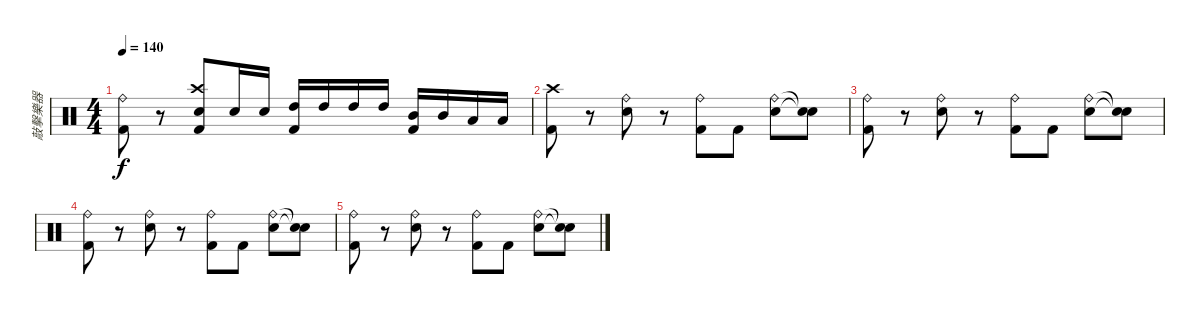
\track ("敲擊樂器" "敲擊樂器") {instrument percussion}
\staff {score}
\articulation defaults
\ts (4 4)
\tempo 140
\clef neutral
\ks c
("Ride (bell)" "Kick (hit) 2").8{dy f} r.8 ("Crash high (hit)" "Snare (hit) 2" "Kick (hit) 2").8 "Snare (hit) 2".16 "Snare (hit) 2".16 ("High Tom (hit)" "Kick (hit) 2").16 "High Tom (hit)".16 "High Tom (hit)".16 "High Tom (hit)".16 ("Mid Tom (hit)" "Kick (hit) 2").16 "Mid Tom (hit)".16 "Low Tom (hit)".16 "Low Tom (hit)".16 |
("Crash high (hit)" "Kick (hit) 2").8 r.8 ("Ride (bell)" "Snare (hit) 2").8 r.8 ("Ride (bell)" "Kick (hit) 2").8 "Kick (hit) 2".8 ("Ride (bell)" "Snare (hit) 2").8 ("Snare (hit)"{t} "Snare (hit)"{t}).8 |
("Ride (bell)" "Kick (hit) 2").8 r.8 ("Ride (bell)" "Snare (hit) 2").8 r.8 ("Ride (bell)" "Kick (hit) 2").8 "Kick (hit) 2".8 ("Ride (bell)" "Snare (hit) 2").8 ("Snare (hit)"{t} "Snare (hit)"{t}).8 |
("Ride (bell)" "Kick (hit) 2").8 r.8 ("Ride (bell)" "Snare (hit) 2").8 r.8 ("Ride (bell)" "Kick (hit) 2").8 "Kick (hit) 2".8 ("Ride (bell)" "Snare (hit) 2").8 ("Snare (hit)"{t} "Snare (hit)"{t}).8 |
("Ride (bell)" "Kick (hit) 2").8 r.8 ("Ride (bell)" "Snare (hit) 2").8 r.8 ("Ride (bell)" "Kick (hit) 2").8 "Kick (hit) 2".8 ("Ride (bell)" "Snare (hit) 2").8 ("Snare (hit)"{t} "Snare (hit)"{t}).8
